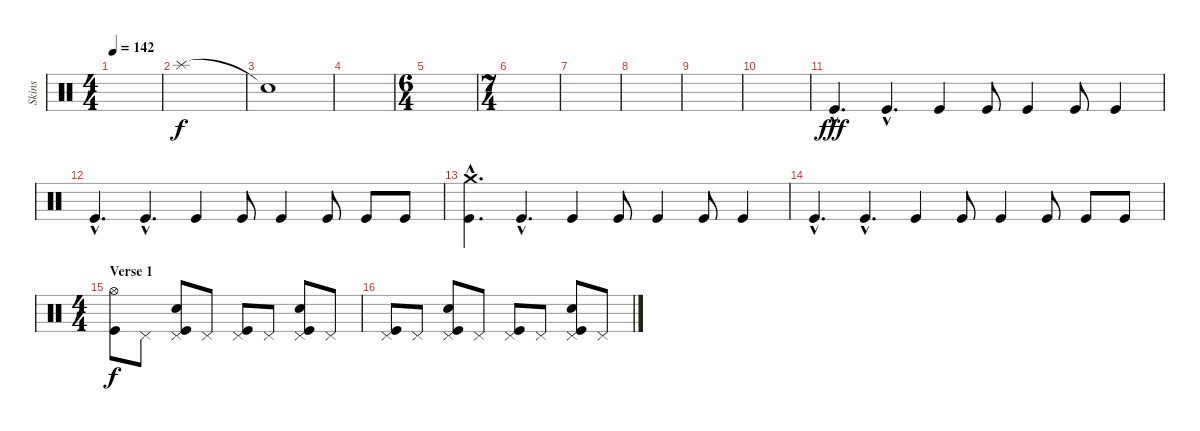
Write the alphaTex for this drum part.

\track ("Skins" "Skins") {instrument percussion}
\staff {score}
\articulation defaults
\ts (4 4)
\tempo 142
\clef neutral
\ks c
|
"Splash (hit)".1 |
"Snare (hit)"{t}.1 |
|
\ts (6 4)
|
\ts (7 4)
|
|
|
|
|
"Kick (hit)"{hac}.4{d dy fff} "Kick (hit)"{hac}.4{d} "Kick (hit)".4 "Kick (hit)".8 "Kick (hit)".4 "Kick (hit)".8 "Kick (hit)".4 |
"Kick (hit)"{hac}.4{d} "Kick (hit)"{hac}.4{d} "Kick (hit)".4 "Kick (hit)".8 "Kick (hit)".4 "Kick (hit)".8 "Kick (hit)".8 "Kick (hit)".8 |
("Crash medium (hit)"{hac} "Kick (hit)"{hac}).4{d} "Kick (hit)"{hac}.4{d} "Kick (hit)".4 "Kick (hit)".8 "Kick (hit)".4 "Kick (hit)".8 "Kick (hit)".4 |
"Kick (hit)"{hac}.4{d} "Kick (hit)"{hac}.4{d} "Kick (hit)".4 "Kick (hit)".8 "Kick (hit)".4 "Kick (hit)".8 "Kick (hit)".8 "Kick (hit)".8 |
\ts (4 4)
\section ("" "Verse 1")
("Hi-Hat (open)" "Kick (hit)").8{dy f} "Pedal Hi-Hat (hit)".8 ("Electric Snare (hit)" "Pedal Hi-Hat (hit)" "Kick (hit)").8 "Pedal Hi-Hat (hit)".8 ("Pedal Hi-Hat (hit)" "Kick (hit)").8 "Pedal Hi-Hat (hit)".8 ("Snare (hit) 2" "Pedal Hi-Hat (hit)" "Kick (hit)").8 "Pedal Hi-Hat (hit)".8 |
("Pedal Hi-Hat (hit)" "Kick (hit)").8 "Pedal Hi-Hat (hit)".8 ("Electric Snare (hit)" "Pedal Hi-Hat (hit)" "Kick (hit)").8 "Pedal Hi-Hat (hit)".8 ("Pedal Hi-Hat (hit)" "Kick (hit)").8 "Pedal Hi-Hat (hit)".8 ("Snare (hit) 2" "Pedal Hi-Hat (hit)" "Kick (hit)").8 "Pedal Hi-Hat (hit)".8
